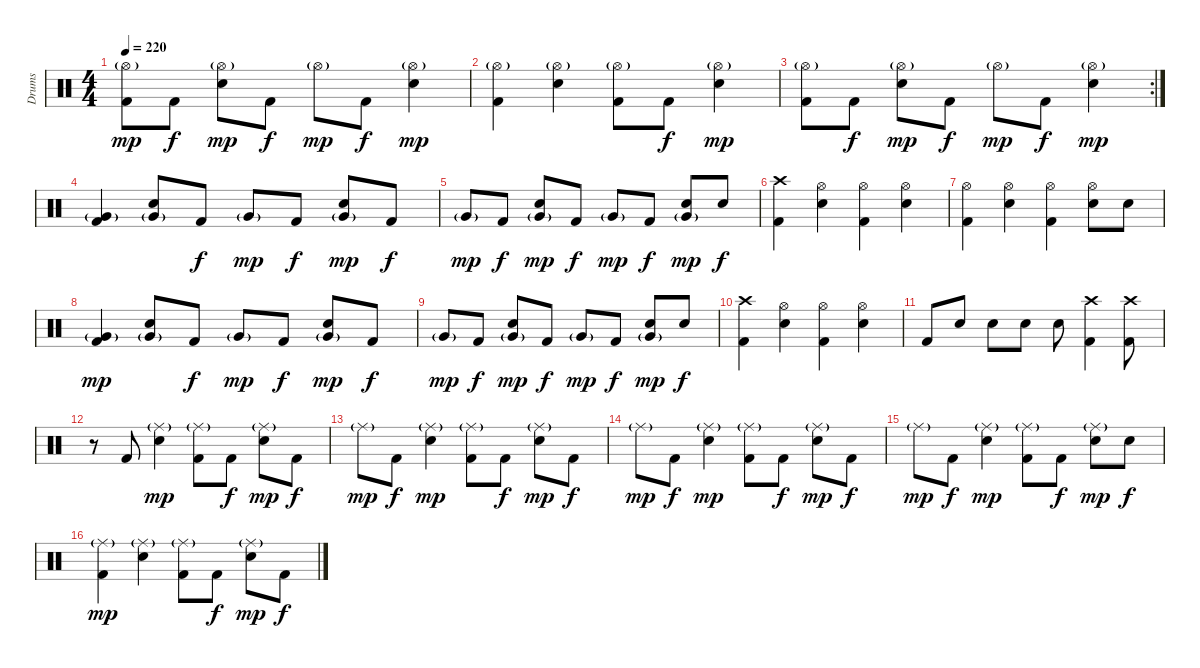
\track ("Drums" "Drums") {instrument percussion}
\staff {score}
\articulation defaults
\ts (4 4)
\tempo 220
\clef neutral
\ks c
("Hi-Hat (open)"{g} "Kick (hit) 2").8{dy mp} "Kick (hit) 2".8{dy f} ("Hi-Hat (open)"{g} "Snare (hit) 2").8{dy mp} "Kick (hit) 2".8{dy f} "Hi-Hat (open)"{g}.8{dy mp} "Kick (hit) 2".8{dy f} ("Hi-Hat (open)"{g} "Snare (hit) 2").4{dy mp} |
("Hi-Hat (open)"{g} "Kick (hit) 2").4 ("Hi-Hat (open)"{g} "Snare (hit) 2").4 ("Hi-Hat (open)"{g} "Kick (hit) 2").8 "Kick (hit) 2".8{dy f} ("Hi-Hat (open)"{g} "Snare (hit) 2").4{dy mp} |
\rc 2
("Hi-Hat (open)"{g} "Kick (hit) 2").8 "Kick (hit) 2".8{dy f} ("Hi-Hat (open)"{g} "Snare (hit) 2").8{dy mp} "Kick (hit) 2".8{dy f} "Hi-Hat (open)"{g}.8{dy mp} "Kick (hit) 2".8{dy f} ("Hi-Hat (open)"{g} "Snare (hit) 2").4{dy mp} |
("Very Low Tom (hit)"{g} "Kick (hit) 2").4 ("Snare (hit) 2" "Very Low Tom (hit)"{g}).8 "Kick (hit) 2".8{dy f} "Very Low Tom (hit)"{g}.8{dy mp} "Kick (hit) 2".8{dy f} ("Snare (hit) 2" "Very Low Tom (hit)"{g}).8{dy mp} "Kick (hit) 2".8{dy f} |
"Very Low Tom (hit)"{g}.8{dy mp} "Kick (hit) 2".8{dy f} ("Snare (hit) 2" "Very Low Tom (hit)"{g}).8{dy mp} "Kick (hit) 2".8{dy f} "Very Low Tom (hit)"{g}.8{dy mp} "Kick (hit) 2".8{dy f} ("Snare (hit) 2" "Very Low Tom (hit)"{g}).8{dy mp} "Snare (hit) 2".8{dy f} |
("Crash high (hit)" "Kick (hit) 2").4 ("Hi-Hat (open)" "Snare (hit) 2").4 ("Hi-Hat (open)" "Kick (hit) 2").4 ("Hi-Hat (open)" "Snare (hit) 2").4 |
("Hi-Hat (open)" "Kick (hit) 2").4 ("Hi-Hat (open)" "Snare (hit) 2").4 ("Hi-Hat (open)" "Kick (hit) 2").4 ("Hi-Hat (open)" "Snare (hit) 2").8 "Snare (hit) 2".8 |
("Very Low Tom (hit)"{g} "Kick (hit) 2").4{dy mp} ("Snare (hit) 2" "Very Low Tom (hit)"{g}).8 "Kick (hit) 2".8{dy f} "Very Low Tom (hit)"{g}.8{dy mp} "Kick (hit) 2".8{dy f} ("Snare (hit) 2" "Very Low Tom (hit)"{g}).8{dy mp} "Kick (hit) 2".8{dy f} |
"Very Low Tom (hit)"{g}.8{dy mp} "Kick (hit) 2".8{dy f} ("Snare (hit) 2" "Very Low Tom (hit)"{g}).8{dy mp} "Kick (hit) 2".8{dy f} "Very Low Tom (hit)"{g}.8{dy mp} "Kick (hit) 2".8{dy f} ("Snare (hit) 2" "Very Low Tom (hit)"{g}).8{dy mp} "Snare (hit) 2".8{dy f} |
("Crash high (hit)" "Kick (hit) 2").4 ("Hi-Hat (open)" "Snare (hit) 2").4 ("Hi-Hat (open)" "Kick (hit) 2").4 ("Hi-Hat (open)" "Snare (hit) 2").4 |
"Kick (hit) 2".8 "Snare (hit) 2".8 "Snare (hit) 2".8 "Snare (hit) 2".8 "Snare (hit) 2".8 ("Crash high (hit)" "Kick (hit) 2").4 ("Crash high (hit)" "Kick (hit) 2").8 |
r.8 "Kick (hit) 2".8 ("Ride (middle)"{g} "Snare (hit) 2").4{dy mp} ("Ride (middle)"{g} "Kick (hit) 2").8 "Kick (hit) 2".8{dy f} ("Ride (middle)"{g} "Snare (hit) 2").8{dy mp} "Kick (hit) 2".8{dy f} |
"Ride (middle)"{g}.8{dy mp} "Kick (hit) 2".8{dy f} ("Ride (middle)"{g} "Snare (hit) 2").4{dy mp} ("Ride (middle)"{g} "Kick (hit) 2").8 "Kick (hit) 2".8{dy f} ("Ride (middle)"{g} "Snare (hit) 2").8{dy mp} "Kick (hit) 2".8{dy f} |
"Ride (middle)"{g}.8{dy mp} "Kick (hit) 2".8{dy f} ("Ride (middle)"{g} "Snare (hit) 2").4{dy mp} ("Ride (middle)"{g} "Kick (hit) 2").8 "Kick (hit) 2".8{dy f} ("Ride (middle)"{g} "Snare (hit) 2").8{dy mp} "Kick (hit) 2".8{dy f} |
"Ride (middle)"{g}.8{dy mp} "Kick (hit) 2".8{dy f} ("Ride (middle)"{g} "Snare (hit) 2").4{dy mp} ("Ride (middle)"{g} "Kick (hit) 2").8 "Kick (hit) 2".8{dy f} ("Ride (middle)"{g} "Snare (hit) 2").8{dy mp} "Snare (hit) 2".8{dy f} |
("Ride (middle)"{g} "Kick (hit) 2").4{dy mp} ("Ride (middle)"{g} "Snare (hit) 2").4 ("Ride (middle)"{g} "Kick (hit) 2").8 "Kick (hit) 2".8{dy f} ("Ride (middle)"{g} "Snare (hit) 2").8{dy mp} "Kick (hit) 2".8{dy f}
